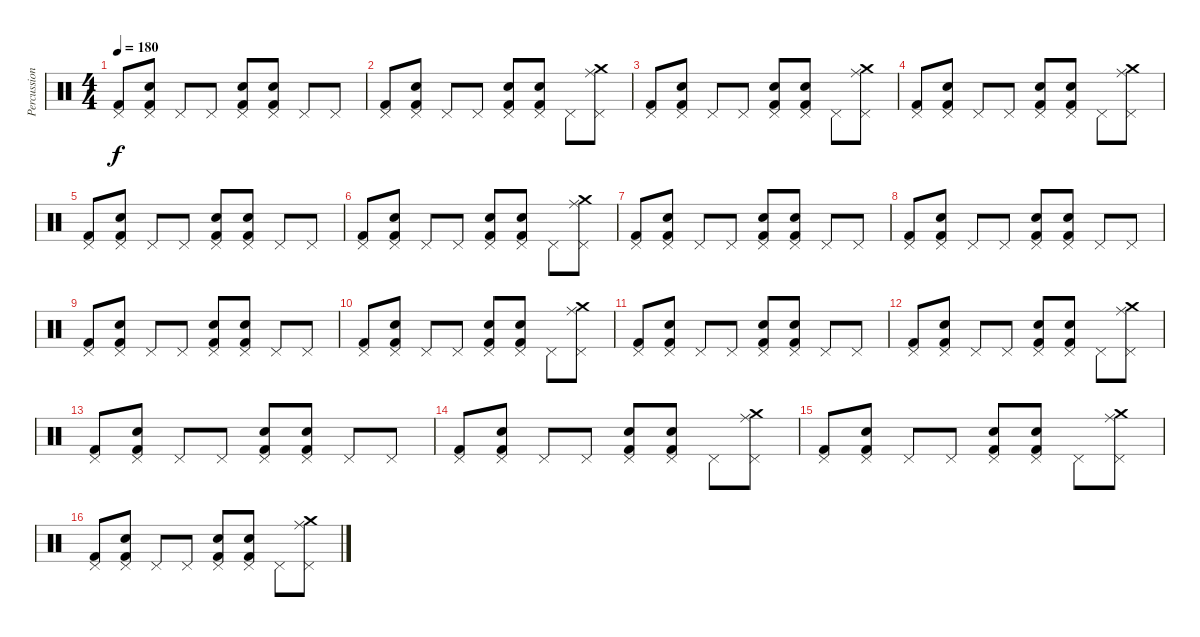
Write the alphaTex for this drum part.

\track ("Percussion" "Percussion") {instrument percussion}
\staff {score}
\articulation defaults
\ts (4 4)
\tempo 180
\clef neutral
\ks c
("Pedal Hi-Hat (hit)" "Kick (hit) 2").8{dy f} ("Pedal Hi-Hat (hit)" "Snare (hit) 2" "Kick (hit) 2").8 "Pedal Hi-Hat (hit)".8 "Pedal Hi-Hat (hit)".8 ("Pedal Hi-Hat (hit)" "Snare (hit) 2" "Kick (hit) 2").8 ("Pedal Hi-Hat (hit)" "Snare (hit) 2" "Kick (hit) 2").8 "Pedal Hi-Hat (hit)".8 "Pedal Hi-Hat (hit)".8 |
("Pedal Hi-Hat (hit)" "Kick (hit) 2").8 ("Pedal Hi-Hat (hit)" "Snare (hit) 2" "Kick (hit) 2").8 "Pedal Hi-Hat (hit)".8 "Pedal Hi-Hat (hit)".8 ("Pedal Hi-Hat (hit)" "Snare (hit) 2" "Kick (hit) 2").8 ("Pedal Hi-Hat (hit)" "Snare (hit) 2" "Kick (hit) 2").8 "Pedal Hi-Hat (hit)".8 ("Pedal Hi-Hat (hit)" "Ride (middle)" "Crash medium (hit)").8 |
("Pedal Hi-Hat (hit)" "Kick (hit) 2").8 ("Pedal Hi-Hat (hit)" "Snare (hit) 2" "Kick (hit) 2").8 "Pedal Hi-Hat (hit)".8 "Pedal Hi-Hat (hit)".8 ("Pedal Hi-Hat (hit)" "Snare (hit) 2" "Kick (hit) 2").8 ("Pedal Hi-Hat (hit)" "Snare (hit) 2" "Kick (hit) 2").8 "Pedal Hi-Hat (hit)".8 ("Pedal Hi-Hat (hit)" "Ride (middle)" "Crash medium (hit)").8 |
("Pedal Hi-Hat (hit)" "Kick (hit) 2").8 ("Pedal Hi-Hat (hit)" "Snare (hit) 2" "Kick (hit) 2").8 "Pedal Hi-Hat (hit)".8 "Pedal Hi-Hat (hit)".8 ("Pedal Hi-Hat (hit)" "Snare (hit) 2" "Kick (hit) 2").8 ("Pedal Hi-Hat (hit)" "Snare (hit) 2" "Kick (hit) 2").8 "Pedal Hi-Hat (hit)".8 ("Pedal Hi-Hat (hit)" "Ride (middle)" "Crash medium (hit)").8 |
("Pedal Hi-Hat (hit)" "Kick (hit) 2").8 ("Pedal Hi-Hat (hit)" "Snare (hit) 2" "Kick (hit) 2").8 "Pedal Hi-Hat (hit)".8 "Pedal Hi-Hat (hit)".8 ("Pedal Hi-Hat (hit)" "Snare (hit) 2" "Kick (hit) 2").8 ("Pedal Hi-Hat (hit)" "Snare (hit) 2" "Kick (hit) 2").8 "Pedal Hi-Hat (hit)".8 "Pedal Hi-Hat (hit)".8 |
("Pedal Hi-Hat (hit)" "Kick (hit) 2").8 ("Pedal Hi-Hat (hit)" "Snare (hit) 2" "Kick (hit) 2").8 "Pedal Hi-Hat (hit)".8 "Pedal Hi-Hat (hit)".8 ("Pedal Hi-Hat (hit)" "Snare (hit) 2" "Kick (hit) 2").8 ("Pedal Hi-Hat (hit)" "Snare (hit) 2" "Kick (hit) 2").8 "Pedal Hi-Hat (hit)".8 ("Pedal Hi-Hat (hit)" "Ride (middle)" "Crash medium (hit)").8 |
("Pedal Hi-Hat (hit)" "Kick (hit) 2").8 ("Pedal Hi-Hat (hit)" "Snare (hit) 2" "Kick (hit) 2").8 "Pedal Hi-Hat (hit)".8 "Pedal Hi-Hat (hit)".8 ("Pedal Hi-Hat (hit)" "Snare (hit) 2" "Kick (hit) 2").8 ("Pedal Hi-Hat (hit)" "Snare (hit) 2" "Kick (hit) 2").8 "Pedal Hi-Hat (hit)".8 "Pedal Hi-Hat (hit)".8 |
("Pedal Hi-Hat (hit)" "Kick (hit) 2").8 ("Pedal Hi-Hat (hit)" "Snare (hit) 2" "Kick (hit) 2").8 "Pedal Hi-Hat (hit)".8 "Pedal Hi-Hat (hit)".8 ("Pedal Hi-Hat (hit)" "Snare (hit) 2" "Kick (hit) 2").8 ("Pedal Hi-Hat (hit)" "Snare (hit) 2" "Kick (hit) 2").8 "Pedal Hi-Hat (hit)".8 "Pedal Hi-Hat (hit)".8 |
("Pedal Hi-Hat (hit)" "Kick (hit) 2").8 ("Pedal Hi-Hat (hit)" "Snare (hit) 2" "Kick (hit) 2").8 "Pedal Hi-Hat (hit)".8 "Pedal Hi-Hat (hit)".8 ("Pedal Hi-Hat (hit)" "Snare (hit) 2" "Kick (hit) 2").8 ("Pedal Hi-Hat (hit)" "Snare (hit) 2" "Kick (hit) 2").8 "Pedal Hi-Hat (hit)".8 "Pedal Hi-Hat (hit)".8 |
("Pedal Hi-Hat (hit)" "Kick (hit) 2").8 ("Pedal Hi-Hat (hit)" "Snare (hit) 2" "Kick (hit) 2").8 "Pedal Hi-Hat (hit)".8 "Pedal Hi-Hat (hit)".8 ("Pedal Hi-Hat (hit)" "Snare (hit) 2" "Kick (hit) 2").8 ("Pedal Hi-Hat (hit)" "Snare (hit) 2" "Kick (hit) 2").8 "Pedal Hi-Hat (hit)".8 ("Pedal Hi-Hat (hit)" "Ride (middle)" "Crash medium (hit)").8 |
("Pedal Hi-Hat (hit)" "Kick (hit) 2").8 ("Pedal Hi-Hat (hit)" "Snare (hit) 2" "Kick (hit) 2").8 "Pedal Hi-Hat (hit)".8 "Pedal Hi-Hat (hit)".8 ("Pedal Hi-Hat (hit)" "Snare (hit) 2" "Kick (hit) 2").8 ("Pedal Hi-Hat (hit)" "Snare (hit) 2" "Kick (hit) 2").8 "Pedal Hi-Hat (hit)".8 "Pedal Hi-Hat (hit)".8 |
("Pedal Hi-Hat (hit)" "Kick (hit) 2").8 ("Pedal Hi-Hat (hit)" "Snare (hit) 2" "Kick (hit) 2").8 "Pedal Hi-Hat (hit)".8 "Pedal Hi-Hat (hit)".8 ("Pedal Hi-Hat (hit)" "Snare (hit) 2" "Kick (hit) 2").8 ("Pedal Hi-Hat (hit)" "Snare (hit) 2" "Kick (hit) 2").8 "Pedal Hi-Hat (hit)".8 ("Pedal Hi-Hat (hit)" "Ride (middle)" "Crash medium (hit)").8 |
("Pedal Hi-Hat (hit)" "Kick (hit) 2").8 ("Pedal Hi-Hat (hit)" "Snare (hit) 2" "Kick (hit) 2").8 "Pedal Hi-Hat (hit)".8 "Pedal Hi-Hat (hit)".8 ("Pedal Hi-Hat (hit)" "Snare (hit) 2" "Kick (hit) 2").8 ("Pedal Hi-Hat (hit)" "Snare (hit) 2" "Kick (hit) 2").8 "Pedal Hi-Hat (hit)".8 "Pedal Hi-Hat (hit)".8 |
("Pedal Hi-Hat (hit)" "Kick (hit) 2").8 ("Pedal Hi-Hat (hit)" "Snare (hit) 2" "Kick (hit) 2").8 "Pedal Hi-Hat (hit)".8 "Pedal Hi-Hat (hit)".8 ("Pedal Hi-Hat (hit)" "Snare (hit) 2" "Kick (hit) 2").8 ("Pedal Hi-Hat (hit)" "Snare (hit) 2" "Kick (hit) 2").8 "Pedal Hi-Hat (hit)".8 ("Pedal Hi-Hat (hit)" "Ride (middle)" "Crash medium (hit)").8 |
("Pedal Hi-Hat (hit)" "Kick (hit) 2").8 ("Pedal Hi-Hat (hit)" "Snare (hit) 2" "Kick (hit) 2").8 "Pedal Hi-Hat (hit)".8 "Pedal Hi-Hat (hit)".8 ("Pedal Hi-Hat (hit)" "Snare (hit) 2" "Kick (hit) 2").8 ("Pedal Hi-Hat (hit)" "Snare (hit) 2" "Kick (hit) 2").8 "Pedal Hi-Hat (hit)".8 ("Pedal Hi-Hat (hit)" "Ride (middle)" "Crash medium (hit)").8 |
("Pedal Hi-Hat (hit)" "Kick (hit) 2").8 ("Pedal Hi-Hat (hit)" "Snare (hit) 2" "Kick (hit) 2").8 "Pedal Hi-Hat (hit)".8 "Pedal Hi-Hat (hit)".8 ("Pedal Hi-Hat (hit)" "Snare (hit) 2" "Kick (hit) 2").8 ("Pedal Hi-Hat (hit)" "Snare (hit) 2" "Kick (hit) 2").8 "Pedal Hi-Hat (hit)".8 ("Pedal Hi-Hat (hit)" "Ride (middle)" "Crash medium (hit)").8
